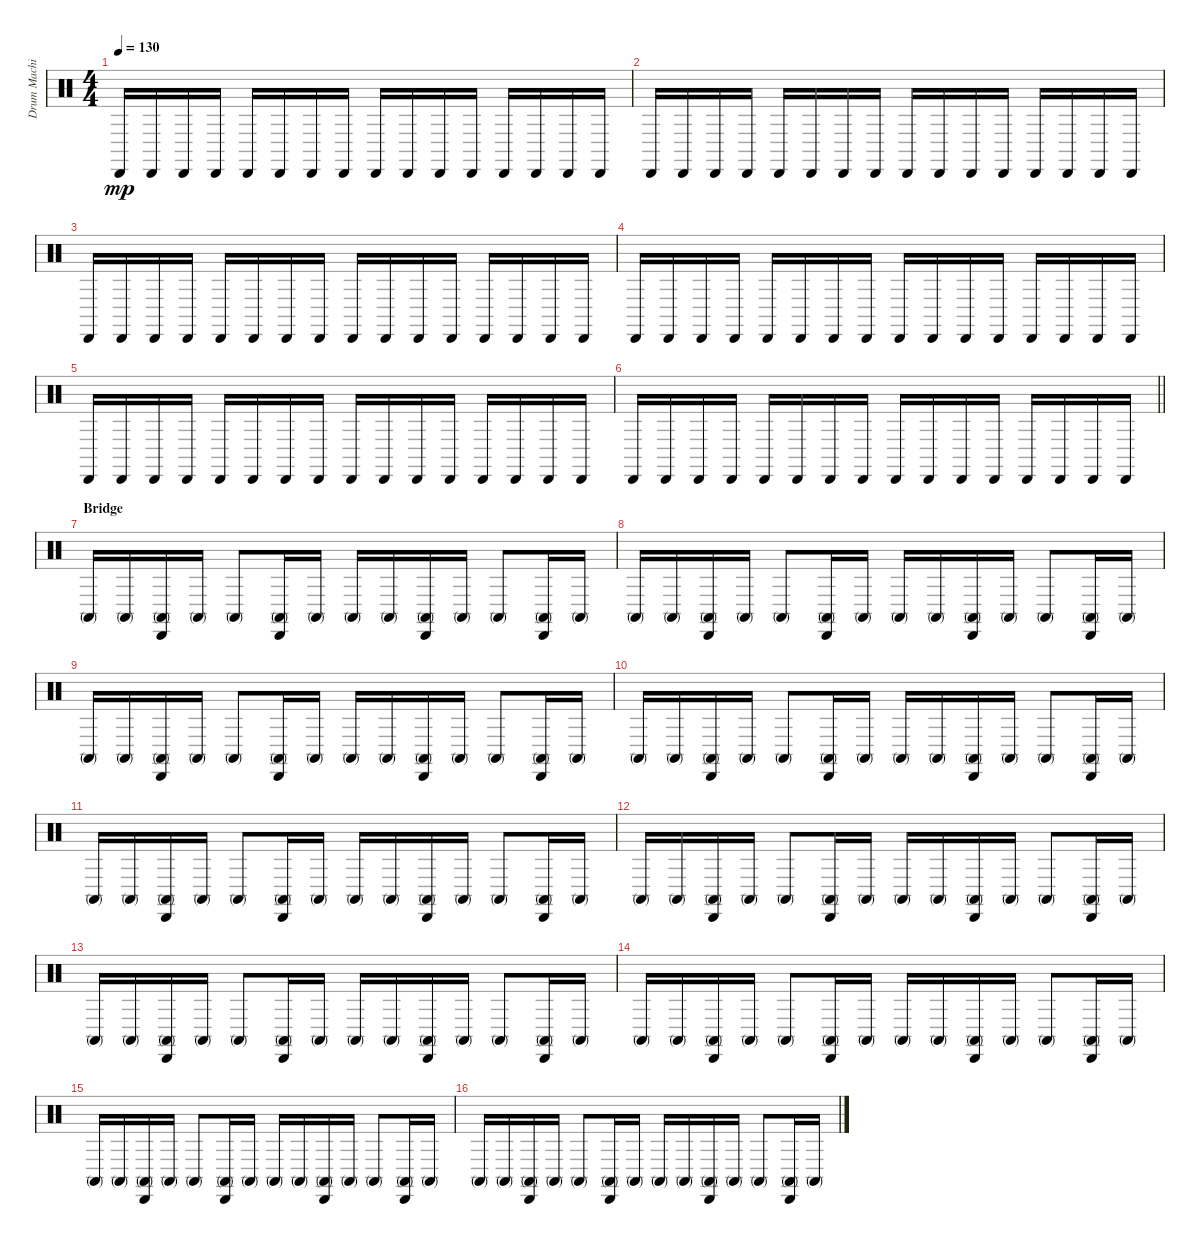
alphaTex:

\track ("Drum Machine" "Drum Machi") {instrument percussion}
\staff {score}
\articulation defaults
\ts (4 4)
\tempo 130
\clef neutral
\ks c "Cabasa (hit)".16{dy mp} "Cabasa (hit)".16 "Cabasa (hit)".16 "Cabasa (hit)".16 "Cabasa (hit)".16 "Cabasa (hit)".16 "Cabasa (hit)".16 "Cabasa (hit)".16 "Cabasa (hit)".16 "Cabasa (hit)".16 "Cabasa (hit)".16 "Cabasa (hit)".16 "Cabasa (hit)".16 "Cabasa (hit)".16 "Cabasa (hit)".16 "Cabasa (hit)".16
|
"Cabasa (hit)".16 "Cabasa (hit)".16 "Cabasa (hit)".16 "Cabasa (hit)".16 "Cabasa (hit)".16 "Cabasa (hit)".16 "Cabasa (hit)".16 "Cabasa (hit)".16 "Cabasa (hit)".16 "Cabasa (hit)".16 "Cabasa (hit)".16 "Cabasa (hit)".16 "Cabasa (hit)".16 "Cabasa (hit)".16 "Cabasa (hit)".16 "Cabasa (hit)".16 |
"Cabasa (hit)".16 "Cabasa (hit)".16 "Cabasa (hit)".16 "Cabasa (hit)".16 "Cabasa (hit)".16 "Cabasa (hit)".16 "Cabasa (hit)".16 "Cabasa (hit)".16 "Cabasa (hit)".16 "Cabasa (hit)".16 "Cabasa (hit)".16 "Cabasa (hit)".16 "Cabasa (hit)".16 "Cabasa (hit)".16 "Cabasa (hit)".16 "Cabasa (hit)".16 |
"Cabasa (hit)".16 "Cabasa (hit)".16 "Cabasa (hit)".16 "Cabasa (hit)".16 "Cabasa (hit)".16 "Cabasa (hit)".16 "Cabasa (hit)".16 "Cabasa (hit)".16 "Cabasa (hit)".16 "Cabasa (hit)".16 "Cabasa (hit)".16 "Cabasa (hit)".16 "Cabasa (hit)".16 "Cabasa (hit)".16 "Cabasa (hit)".16 "Cabasa (hit)".16 |
"Cabasa (hit)".16 "Cabasa (hit)".16 "Cabasa (hit)".16 "Cabasa (hit)".16 "Cabasa (hit)".16 "Cabasa (hit)".16 "Cabasa (hit)".16 "Cabasa (hit)".16 "Cabasa (hit)".16 "Cabasa (hit)".16 "Cabasa (hit)".16 "Cabasa (hit)".16 "Cabasa (hit)".16 "Cabasa (hit)".16 "Cabasa (hit)".16 "Cabasa (hit)".16 |
\barLineRight lightlight "Cabasa (hit)".16 "Cabasa (hit)".16 "Cabasa (hit)".16 "Cabasa (hit)".16 "Cabasa (hit)".16 "Cabasa (hit)".16 "Cabasa (hit)".16 "Cabasa (hit)".16 "Cabasa (hit)".16 "Cabasa (hit)".16 "Cabasa (hit)".16 "Cabasa (hit)".16 "Cabasa (hit)".16 "Cabasa (hit)".16 "Cabasa (hit)".16 "Cabasa (hit)".16
|
\section ("" "Bridge")
"Conga high (mute)".16 "Conga high (mute)".16 ("Cabasa (hit)" "Conga high (mute)").16 "Conga high (mute)".16 "Conga high (mute)".8 ("Cabasa (hit)" "Conga high (mute)").16 "Conga high (mute)".16 "Conga high (mute)".16 "Conga high (mute)".16 ("Cabasa (hit)" "Conga high (mute)").16 "Conga high (mute)".16 "Conga high (mute)".8 ("Cabasa (hit)" "Conga high (mute)").16 "Conga high (mute)".16 |
"Conga high (mute)".16 "Conga high (mute)".16 ("Cabasa (hit)" "Conga high (mute)").16 "Conga high (mute)".16 "Conga high (mute)".8 ("Cabasa (hit)" "Conga high (mute)").16 "Conga high (mute)".16 "Conga high (mute)".16 "Conga high (mute)".16 ("Cabasa (hit)" "Conga high (mute)").16 "Conga high (mute)".16 "Conga high (mute)".8 ("Cabasa (hit)" "Conga high (mute)").16 "Conga high (mute)".16 |
"Conga high (mute)".16 "Conga high (mute)".16 ("Cabasa (hit)" "Conga high (mute)").16 "Conga high (mute)".16 "Conga high (mute)".8 ("Cabasa (hit)" "Conga high (mute)").16 "Conga high (mute)".16 "Conga high (mute)".16 "Conga high (mute)".16 ("Cabasa (hit)" "Conga high (mute)").16 "Conga high (mute)".16 "Conga high (mute)".8 ("Cabasa (hit)" "Conga high (mute)").16 "Conga high (mute)".16 |
"Conga high (mute)".16 "Conga high (mute)".16 ("Cabasa (hit)" "Conga high (mute)").16 "Conga high (mute)".16 "Conga high (mute)".8 ("Cabasa (hit)" "Conga high (mute)").16 "Conga high (mute)".16 "Conga high (mute)".16 "Conga high (mute)".16 ("Cabasa (hit)" "Conga high (mute)").16 "Conga high (mute)".16 "Conga high (mute)".8 ("Cabasa (hit)" "Conga high (mute)").16 "Conga high (mute)".16 |
"Conga high (mute)".16 "Conga high (mute)".16 ("Cabasa (hit)" "Conga high (mute)").16 "Conga high (mute)".16 "Conga high (mute)".8 ("Cabasa (hit)" "Conga high (mute)").16 "Conga high (mute)".16 "Conga high (mute)".16 "Conga high (mute)".16 ("Cabasa (hit)" "Conga high (mute)").16 "Conga high (mute)".16 "Conga high (mute)".8 ("Cabasa (hit)" "Conga high (mute)").16 "Conga high (mute)".16 |
"Conga high (mute)".16 "Conga high (mute)".16 ("Cabasa (hit)" "Conga high (mute)").16 "Conga high (mute)".16 "Conga high (mute)".8 ("Cabasa (hit)" "Conga high (mute)").16 "Conga high (mute)".16 "Conga high (mute)".16 "Conga high (mute)".16 ("Cabasa (hit)" "Conga high (mute)").16 "Conga high (mute)".16 "Conga high (mute)".8 ("Cabasa (hit)" "Conga high (mute)").16 "Conga high (mute)".16 |
"Conga high (mute)".16 "Conga high (mute)".16 ("Cabasa (hit)" "Conga high (mute)").16 "Conga high (mute)".16 "Conga high (mute)".8 ("Cabasa (hit)" "Conga high (mute)").16 "Conga high (mute)".16 "Conga high (mute)".16 "Conga high (mute)".16 ("Cabasa (hit)" "Conga high (mute)").16 "Conga high (mute)".16 "Conga high (mute)".8 ("Cabasa (hit)" "Conga high (mute)").16 "Conga high (mute)".16 |
"Conga high (mute)".16 "Conga high (mute)".16 ("Cabasa (hit)" "Conga high (mute)").16 "Conga high (mute)".16 "Conga high (mute)".8 ("Cabasa (hit)" "Conga high (mute)").16 "Conga high (mute)".16 "Conga high (mute)".16 "Conga high (mute)".16 ("Cabasa (hit)" "Conga high (mute)").16 "Conga high (mute)".16 "Conga high (mute)".8 ("Cabasa (hit)" "Conga high (mute)").16 "Conga high (mute)".16 |
"Conga high (mute)".16 "Conga high (mute)".16 ("Cabasa (hit)" "Conga high (mute)").16 "Conga high (mute)".16 "Conga high (mute)".8 ("Cabasa (hit)" "Conga high (mute)").16 "Conga high (mute)".16 "Conga high (mute)".16 "Conga high (mute)".16 ("Cabasa (hit)" "Conga high (mute)").16 "Conga high (mute)".16 "Conga high (mute)".8 ("Cabasa (hit)" "Conga high (mute)").16 "Conga high (mute)".16 |
"Conga high (mute)".16 "Conga high (mute)".16 ("Cabasa (hit)" "Conga high (mute)").16 "Conga high (mute)".16 "Conga high (mute)".8 ("Cabasa (hit)" "Conga high (mute)").16 "Conga high (mute)".16 "Conga high (mute)".16 "Conga high (mute)".16 ("Cabasa (hit)" "Conga high (mute)").16 "Conga high (mute)".16 "Conga high (mute)".8 ("Cabasa (hit)" "Conga high (mute)").16 "Conga high (mute)".16
